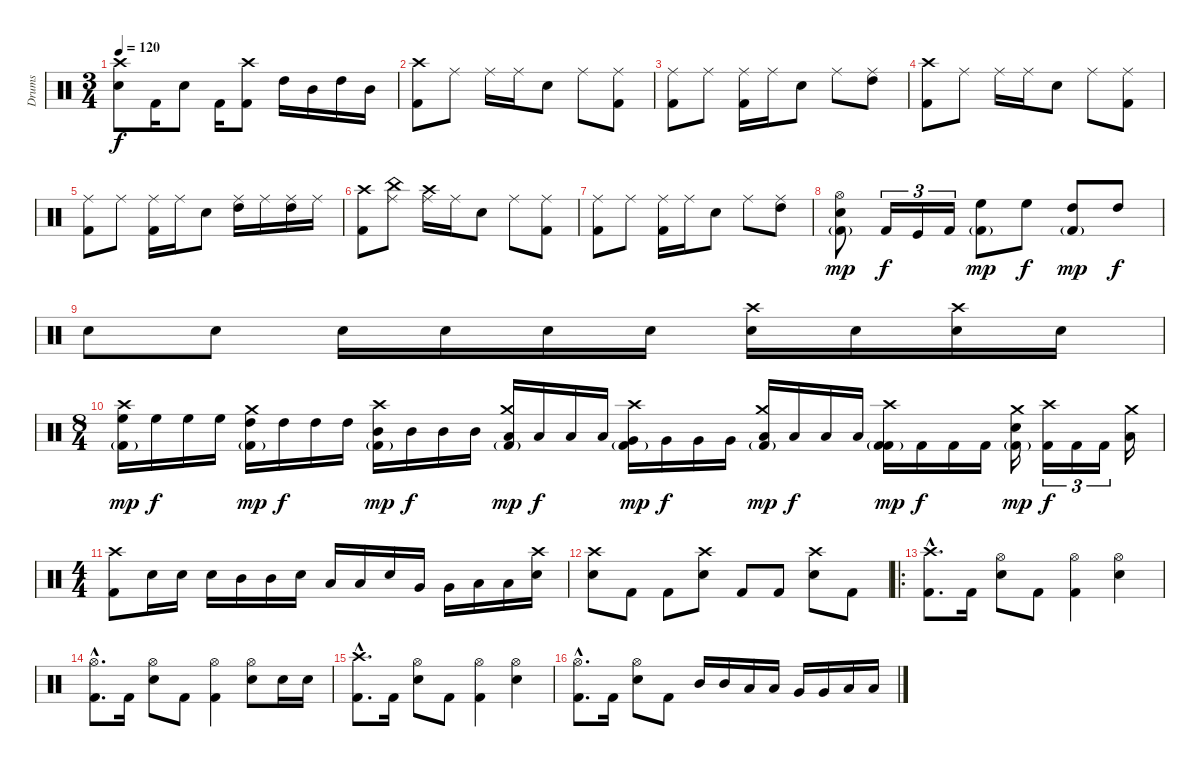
\track ("Drums" "Drums") {instrument percussion}
\staff {score}
\articulation defaults
\ts (3 4)
\tempo 120
\clef neutral
\ks c
("Crash high (hit)" "Snare (hit) 2").8{dy f} "Kick (hit) 2".16 "Snare (hit) 2".8 "Kick (hit) 2".16 ("Crash high (hit)" "Kick (hit) 2").8 "High Tom (hit)".16 "Mid Tom (hit)".16 "High Tom (hit)".16 "Mid Tom (hit)".16 |
("Crash high (hit)" "Kick (hit) 2").8 "Ride (middle)".8 "Ride (middle)".16 "Ride (middle)".16 "Snare (hit) 2".8 "Ride (middle)".8 ("Ride (middle)" "Kick (hit) 2").8 |
("Ride (middle)" "Kick (hit) 2").8 "Ride (middle)".8 ("Ride (middle)" "Kick (hit) 2").16 "Ride (middle)".16 "Snare (hit) 2".8 "Ride (middle)".8 ("Ride (middle)" "High Tom (hit)").8 |
("Crash high (hit)" "Kick (hit) 2").8 "Ride (middle)".8 "Ride (middle)".16 "Ride (middle)".16 "Snare (hit) 2".8 "Ride (middle)".8 ("Ride (middle)" "Kick (hit) 2").8 |
("Ride (middle)" "Kick (hit) 2").8 "Ride (middle)".8 ("Ride (middle)" "Kick (hit) 2").16 "Ride (middle)".16 "Snare (hit) 2".8 ("Ride (middle)" "High Tom (hit)").16 "Ride (middle)".16 ("Ride (middle)" "High Tom (hit)").16 "Ride (middle)".16 |
("Crash high (hit)" "Kick (hit) 2").8 ("China (hit)" "Ride (middle)").8 ("Crash high (hit)" "Ride (middle)").16 "Ride (middle)".16 "Snare (hit) 2".8 "Ride (middle)".8 ("Ride (middle)" "Kick (hit) 2").8 |
("Ride (middle)" "Kick (hit) 2").8 "Ride (middle)".8 ("Ride (middle)" "Kick (hit) 2").16 "Ride (middle)".16 "Snare (hit) 2".8 "Ride (middle)".8 ("Ride (middle)" "High Tom (hit)").8 |
("Hi-Hat (open)" "Snare (hit) 2" "Kick (hit) 2"{g}).8{dy mp} "Kick (hit) 2".16{tu (3 2) dy f} "Kick (hit)".16{tu (3 2)} "Kick (hit) 2".16{tu (3 2)} ("High Floor Tom (hit)" "Kick (hit) 2"{g}).8{dy mp} "High Floor Tom (hit)".8{dy f} ("High Tom (hit)" "Kick (hit) 2"{g}).8{dy mp} "High Tom (hit)".8{dy f} |
"Snare (hit) 2".8 "Snare (hit) 2".8 "Snare (hit) 2".16 "Snare (hit) 2".16 "Snare (hit) 2".16 "Snare (hit) 2".16 ("Crash high (hit)" "Snare (hit) 2").16 "Snare (hit) 2".16 ("Crash high (hit)" "Snare (hit) 2").16 "Snare (hit) 2".16 |
\ts (8 4)
("Crash high (hit)" "High Floor Tom (hit)" "Kick (hit) 2"{g}).16{dy mp} "High Floor Tom (hit)".16{dy f} "High Floor Tom (hit)".16 "High Floor Tom (hit)".16 ("Crash medium (hit)" "High Tom (hit)" "Kick (hit) 2"{g}).16{dy mp} "High Tom (hit)".16{dy f} "High Tom (hit)".16 "High Tom (hit)".16 ("Crash high (hit)" "Mid Tom (hit)" "Kick (hit) 2"{g}).16{dy mp} "Mid Tom (hit)".16{dy f} "Mid Tom (hit)".16 "Mid Tom (hit)".16 ("Crash medium (hit)" "Low Tom (hit)" "Kick (hit) 2"{g}).16{dy mp} "Low Tom (hit)".16{dy f} "Low Tom (hit)".16 "Low Tom (hit)".16 ("Crash high (hit)" "Very Low Tom (hit)" "Kick (hit) 2"{g}).16{dy mp} "Very Low Tom (hit)".16{dy f} "Very Low Tom (hit)".16 "Very Low Tom (hit)".16 ("Crash medium (hit)" "Kick (hit) 2"{g} "Low Floor Tom (hit)").16{dy mp} "Low Floor Tom (hit)".16{dy f} "Low Floor Tom (hit)".16 "Low Floor Tom (hit)".16 ("Crash high (hit)" "Kick (hit) 2"{g} "Kick (hit) 2").16{dy mp} "Kick (hit) 2".16{dy f} "Kick (hit) 2".16 "Kick (hit) 2".16 ("Crash medium (hit)" "Snare (hit) 2" "Kick (hit) 2"{g}).16{dy mp} ("Crash high (hit)" "Kick (hit) 2").16{tu (3 2) dy f} "Kick (hit) 2".16{tu (3 2)} "Kick (hit) 2".16{tu (3 2)} ("Crash medium (hit)" "Low Tom (hit)").16 |
\ts (4 4)
("Crash high (hit)" "Kick (hit) 2").8 "Snare (hit) 2".16 "Snare (hit) 2".16 "Snare (hit) 2".16 "Mid Tom (hit)".16 "Mid Tom (hit)".16 "Snare (hit) 2".16 "Low Tom (hit)".16 "Low Tom (hit)".16 "Snare (hit) 2".16 "Very Low Tom (hit)".16 "Very Low Tom (hit)".16 "Low Floor Tom (hit)".16 "Low Floor Tom (hit)".16 ("Crash high (hit)" "Electric Snare (hit)").16 |
("Crash high (hit)" "Snare (hit) 2").8 "Kick (hit) 2".8 "Kick (hit) 2".8 ("Crash high (hit)" "Snare (hit) 2").8 "Kick (hit) 2".8 "Kick (hit) 2".8 ("Crash high (hit)" "Snare (hit) 2").8 "Kick (hit) 2".8 |
\ro
("Crash high (hit)"{hac} "Kick (hit) 2"{hac}).8{d} "Kick (hit) 2".16 ("Hi-Hat (open)" "Snare (hit) 2").8 "Kick (hit) 2".8 ("Hi-Hat (open)" "Kick (hit) 2").4 ("Hi-Hat (open)" "Snare (hit) 2").4 |
("Hi-Hat (open)"{hac} "Kick (hit) 2"{hac}).8{d} "Kick (hit) 2".16 ("Hi-Hat (open)" "Snare (hit) 2").8 "Kick (hit) 2".8 ("Hi-Hat (open)" "Kick (hit) 2").4 ("Hi-Hat (open)" "Snare (hit) 2").8 "Snare (hit) 2".16 "Snare (hit) 2".16 |
("Crash high (hit)"{hac} "Kick (hit) 2"{hac}).8{d} "Kick (hit) 2".16 ("Hi-Hat (open)" "Snare (hit) 2").8 "Kick (hit) 2".8 ("Hi-Hat (open)" "Kick (hit) 2").4 ("Hi-Hat (open)" "Snare (hit) 2").4 |
("Hi-Hat (open)"{hac} "Kick (hit) 2"{hac}).8{d} "Kick (hit) 2".16 ("Hi-Hat (open)" "Snare (hit) 2").8 "Kick (hit) 2".8 "Mid Tom (hit)".16 "Mid Tom (hit)".16 "Low Tom (hit)".16 "Low Tom (hit)".16 "Very Low Tom (hit)".16 "Very Low Tom (hit)".16 "Low Floor Tom (hit)".16 "Low Floor Tom (hit)".16
